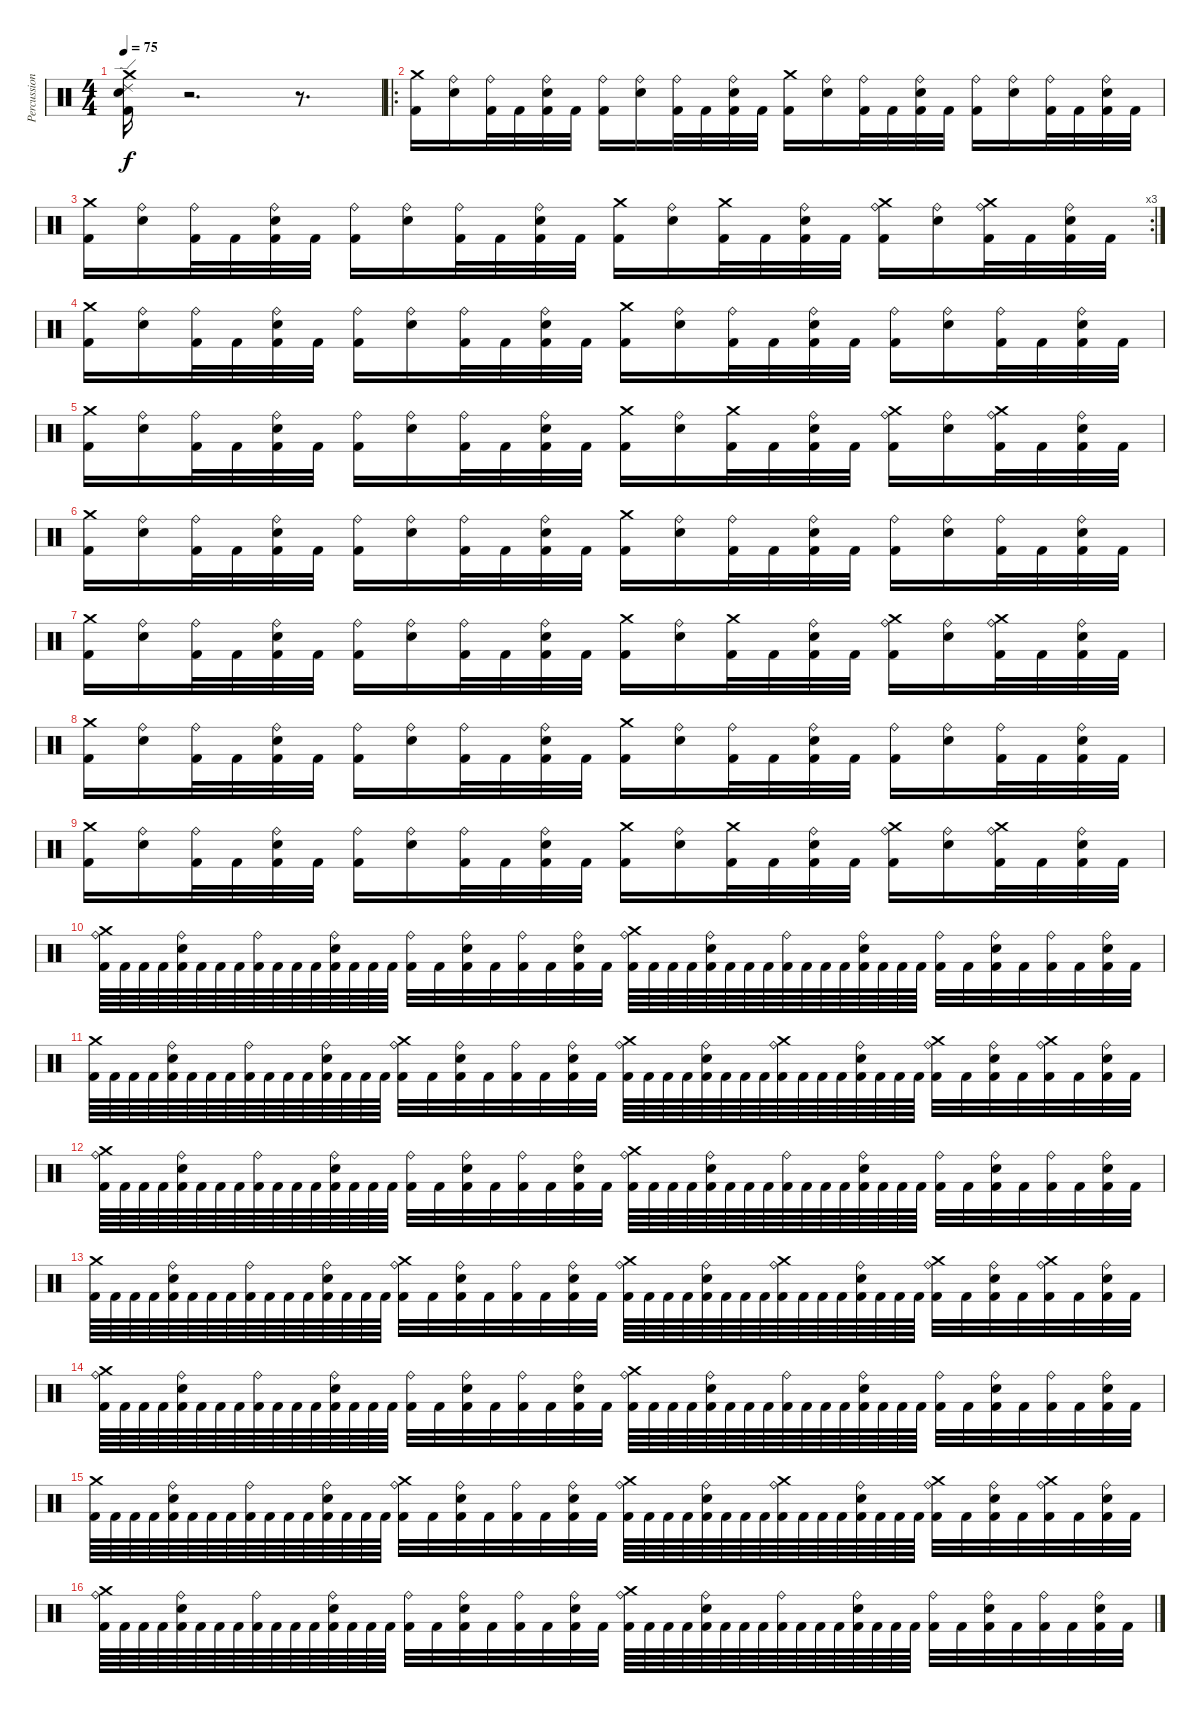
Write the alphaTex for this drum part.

\track ("Percussion" "Percussion") {instrument percussion}
\staff {score}
\articulation defaults
\ts (4 4)
\tempo 75
\clef neutral
\ks c
("Crash medium (hit)" "Electric Snare (hit)" "Ride (edge) 2" "Kick (hit) 2").16{dy f} r.2{d} r.8{d} |
\ro
("Crash medium (hit)" "Kick (hit) 2").16 ("Ride (bell)" "Electric Snare (hit)").16 ("Ride (bell)" "Kick (hit) 2").32 "Kick (hit) 2".32 ("Ride (bell)" "Electric Snare (hit)" "Kick (hit) 2").32 "Kick (hit) 2".32 ("Ride (bell)" "Kick (hit) 2").16 ("Ride (bell)" "Electric Snare (hit)").16 ("Ride (bell)" "Kick (hit) 2").32 "Kick (hit) 2".32 ("Ride (bell)" "Electric Snare (hit)" "Kick (hit) 2").32 "Kick (hit) 2".32 ("Crash medium (hit)" "Kick (hit) 2").16 ("Ride (bell)" "Electric Snare (hit)").16 ("Ride (bell)" "Kick (hit) 2").32 "Kick (hit) 2".32 ("Ride (bell)" "Electric Snare (hit)" "Kick (hit) 2").32 "Kick (hit) 2".32 ("Ride (bell)" "Kick (hit) 2").16 ("Ride (bell)" "Electric Snare (hit)").16 ("Ride (bell)" "Kick (hit) 2").32 "Kick (hit) 2".32 ("Ride (bell)" "Electric Snare (hit)" "Kick (hit) 2").32 "Kick (hit) 2".32 |
\rc 3
("Crash medium (hit)" "Kick (hit) 2").16 ("Ride (bell)" "Electric Snare (hit)").16 ("Ride (bell)" "Kick (hit) 2").32 "Kick (hit) 2".32 ("Ride (bell)" "Electric Snare (hit)" "Kick (hit) 2").32 "Kick (hit) 2".32 ("Ride (bell)" "Kick (hit) 2").16 ("Ride (bell)" "Electric Snare (hit)").16 ("Ride (bell)" "Kick (hit) 2").32 "Kick (hit) 2".32 ("Ride (bell)" "Electric Snare (hit)" "Kick (hit) 2").32 "Kick (hit) 2".32 ("Crash medium (hit)" "Kick (hit) 2").16 ("Ride (bell)" "Electric Snare (hit)").16 ("Crash medium (hit)" "Kick (hit) 2").32 "Kick (hit) 2".32 ("Ride (bell)" "Electric Snare (hit)" "Kick (hit) 2").32 "Kick (hit) 2".32 ("Crash medium (hit)" "Ride (bell)" "Kick (hit) 2").16 ("Ride (bell)" "Electric Snare (hit)").16 ("Crash medium (hit)" "Ride (bell)" "Kick (hit) 2").32 "Kick (hit) 2".32 ("Ride (bell)" "Electric Snare (hit)" "Kick (hit) 2").32 "Kick (hit) 2".32 |
("Crash medium (hit)" "Kick (hit) 2").16 ("Ride (bell)" "Electric Snare (hit)").16 ("Ride (bell)" "Kick (hit) 2").32 "Kick (hit) 2".32 ("Ride (bell)" "Electric Snare (hit)" "Kick (hit) 2").32 "Kick (hit) 2".32 ("Ride (bell)" "Kick (hit) 2").16 ("Ride (bell)" "Electric Snare (hit)").16 ("Ride (bell)" "Kick (hit) 2").32 "Kick (hit) 2".32 ("Ride (bell)" "Electric Snare (hit)" "Kick (hit) 2").32 "Kick (hit) 2".32 ("Crash medium (hit)" "Kick (hit) 2").16 ("Ride (bell)" "Electric Snare (hit)").16 ("Ride (bell)" "Kick (hit) 2").32 "Kick (hit) 2".32 ("Ride (bell)" "Electric Snare (hit)" "Kick (hit) 2").32 "Kick (hit) 2".32 ("Ride (bell)" "Kick (hit) 2").16 ("Ride (bell)" "Electric Snare (hit)").16 ("Ride (bell)" "Kick (hit) 2").32 "Kick (hit) 2".32 ("Ride (bell)" "Electric Snare (hit)" "Kick (hit) 2").32 "Kick (hit) 2".32 |
("Crash medium (hit)" "Kick (hit) 2").16 ("Ride (bell)" "Electric Snare (hit)").16 ("Ride (bell)" "Kick (hit) 2").32 "Kick (hit) 2".32 ("Ride (bell)" "Electric Snare (hit)" "Kick (hit) 2").32 "Kick (hit) 2".32 ("Ride (bell)" "Kick (hit) 2").16 ("Ride (bell)" "Electric Snare (hit)").16 ("Ride (bell)" "Kick (hit) 2").32 "Kick (hit) 2".32 ("Ride (bell)" "Electric Snare (hit)" "Kick (hit) 2").32 "Kick (hit) 2".32 ("Crash medium (hit)" "Kick (hit) 2").16 ("Ride (bell)" "Electric Snare (hit)").16 ("Crash medium (hit)" "Kick (hit) 2").32 "Kick (hit) 2".32 ("Ride (bell)" "Electric Snare (hit)" "Kick (hit) 2").32 "Kick (hit) 2".32 ("Crash medium (hit)" "Ride (bell)" "Kick (hit) 2").16 ("Ride (bell)" "Electric Snare (hit)").16 ("Crash medium (hit)" "Ride (bell)" "Kick (hit) 2").32 "Kick (hit) 2".32 ("Ride (bell)" "Electric Snare (hit)" "Kick (hit) 2").32 "Kick (hit) 2".32 |
("Crash medium (hit)" "Kick (hit) 2").16 ("Ride (bell)" "Electric Snare (hit)").16 ("Ride (bell)" "Kick (hit) 2").32 "Kick (hit) 2".32 ("Ride (bell)" "Electric Snare (hit)" "Kick (hit) 2").32 "Kick (hit) 2".32 ("Ride (bell)" "Kick (hit) 2").16 ("Ride (bell)" "Electric Snare (hit)").16 ("Ride (bell)" "Kick (hit) 2").32 "Kick (hit) 2".32 ("Ride (bell)" "Electric Snare (hit)" "Kick (hit) 2").32 "Kick (hit) 2".32 ("Crash medium (hit)" "Kick (hit) 2").16 ("Ride (bell)" "Electric Snare (hit)").16 ("Ride (bell)" "Kick (hit) 2").32 "Kick (hit) 2".32 ("Ride (bell)" "Electric Snare (hit)" "Kick (hit) 2").32 "Kick (hit) 2".32 ("Ride (bell)" "Kick (hit) 2").16 ("Ride (bell)" "Electric Snare (hit)").16 ("Ride (bell)" "Kick (hit) 2").32 "Kick (hit) 2".32 ("Ride (bell)" "Electric Snare (hit)" "Kick (hit) 2").32 "Kick (hit) 2".32 |
("Crash medium (hit)" "Kick (hit) 2").16 ("Ride (bell)" "Electric Snare (hit)").16 ("Ride (bell)" "Kick (hit) 2").32 "Kick (hit) 2".32 ("Ride (bell)" "Electric Snare (hit)" "Kick (hit) 2").32 "Kick (hit) 2".32 ("Ride (bell)" "Kick (hit) 2").16 ("Ride (bell)" "Electric Snare (hit)").16 ("Ride (bell)" "Kick (hit) 2").32 "Kick (hit) 2".32 ("Ride (bell)" "Electric Snare (hit)" "Kick (hit) 2").32 "Kick (hit) 2".32 ("Crash medium (hit)" "Kick (hit) 2").16 ("Ride (bell)" "Electric Snare (hit)").16 ("Crash medium (hit)" "Kick (hit) 2").32 "Kick (hit) 2".32 ("Ride (bell)" "Electric Snare (hit)" "Kick (hit) 2").32 "Kick (hit) 2".32 ("Crash medium (hit)" "Ride (bell)" "Kick (hit) 2").16 ("Ride (bell)" "Electric Snare (hit)").16 ("Crash medium (hit)" "Ride (bell)" "Kick (hit) 2").32 "Kick (hit) 2".32 ("Ride (bell)" "Electric Snare (hit)" "Kick (hit) 2").32 "Kick (hit) 2".32 |
("Crash medium (hit)" "Kick (hit) 2").16 ("Ride (bell)" "Electric Snare (hit)").16 ("Ride (bell)" "Kick (hit) 2").32 "Kick (hit) 2".32 ("Ride (bell)" "Electric Snare (hit)" "Kick (hit) 2").32 "Kick (hit) 2".32 ("Ride (bell)" "Kick (hit) 2").16 ("Ride (bell)" "Electric Snare (hit)").16 ("Ride (bell)" "Kick (hit) 2").32 "Kick (hit) 2".32 ("Ride (bell)" "Electric Snare (hit)" "Kick (hit) 2").32 "Kick (hit) 2".32 ("Crash medium (hit)" "Kick (hit) 2").16 ("Ride (bell)" "Electric Snare (hit)").16 ("Ride (bell)" "Kick (hit) 2").32 "Kick (hit) 2".32 ("Ride (bell)" "Electric Snare (hit)" "Kick (hit) 2").32 "Kick (hit) 2".32 ("Ride (bell)" "Kick (hit) 2").16 ("Ride (bell)" "Electric Snare (hit)").16 ("Ride (bell)" "Kick (hit) 2").32 "Kick (hit) 2".32 ("Ride (bell)" "Electric Snare (hit)" "Kick (hit) 2").32 "Kick (hit) 2".32 |
("Crash medium (hit)" "Kick (hit) 2").16 ("Ride (bell)" "Electric Snare (hit)").16 ("Ride (bell)" "Kick (hit) 2").32 "Kick (hit) 2".32 ("Ride (bell)" "Electric Snare (hit)" "Kick (hit) 2").32 "Kick (hit) 2".32 ("Ride (bell)" "Kick (hit) 2").16 ("Ride (bell)" "Electric Snare (hit)").16 ("Ride (bell)" "Kick (hit) 2").32 "Kick (hit) 2".32 ("Ride (bell)" "Electric Snare (hit)" "Kick (hit) 2").32 "Kick (hit) 2".32 ("Crash medium (hit)" "Kick (hit) 2").16 ("Ride (bell)" "Electric Snare (hit)").16 ("Crash medium (hit)" "Kick (hit) 2").32 "Kick (hit) 2".32 ("Ride (bell)" "Electric Snare (hit)" "Kick (hit) 2").32 "Kick (hit) 2".32 ("Crash medium (hit)" "Ride (bell)" "Kick (hit) 2").16 ("Ride (bell)" "Electric Snare (hit)").16 ("Crash medium (hit)" "Ride (bell)" "Kick (hit) 2").32 "Kick (hit) 2".32 ("Ride (bell)" "Electric Snare (hit)" "Kick (hit) 2").32 "Kick (hit) 2".32 |
("Crash medium (hit)" "Ride (bell)" "Kick (hit) 2").64 "Kick (hit) 2".64 "Kick (hit) 2".64 "Kick (hit) 2".64 ("Ride (bell)" "Electric Snare (hit)" "Kick (hit) 2").64 "Kick (hit) 2".64 "Kick (hit) 2".64 "Kick (hit) 2".64 ("Ride (bell)" "Kick (hit) 2").64 "Kick (hit) 2".64 "Kick (hit) 2".64 "Kick (hit) 2".64 ("Ride (bell)" "Electric Snare (hit)" "Kick (hit) 2").64 "Kick (hit) 2".64 "Kick (hit) 2".64 "Kick (hit) 2".64 ("Ride (bell)" "Kick (hit) 2").32 "Kick (hit) 2".32 ("Ride (bell)" "Electric Snare (hit)" "Kick (hit) 2").32 "Kick (hit) 2".32 ("Ride (bell)" "Kick (hit) 2").32 "Kick (hit) 2".32 ("Ride (bell)" "Electric Snare (hit)" "Kick (hit) 2").32 "Kick (hit) 2".32 ("Crash medium (hit)" "Ride (bell)" "Kick (hit) 2").64 "Kick (hit) 2".64 "Kick (hit) 2".64 "Kick (hit) 2".64 ("Ride (bell)" "Electric Snare (hit)" "Kick (hit) 2").64 "Kick (hit) 2".64 "Kick (hit) 2".64 "Kick (hit) 2".64 ("Ride (bell)" "Kick (hit) 2").64 "Kick (hit) 2".64 "Kick (hit) 2".64 "Kick (hit) 2".64 ("Ride (bell)" "Electric Snare (hit)" "Kick (hit) 2").64 "Kick (hit) 2".64 "Kick (hit) 2".64 "Kick (hit) 2".64 ("Ride (bell)" "Kick (hit) 2").32 "Kick (hit) 2".32 ("Ride (bell)" "Electric Snare (hit)" "Kick (hit) 2").32 "Kick (hit) 2".32 ("Ride (bell)" "Kick (hit) 2").32 "Kick (hit) 2".32 ("Ride (bell)" "Electric Snare (hit)" "Kick (hit) 2").32 "Kick (hit) 2".32 |
("Crash medium (hit)" "Kick (hit) 2").64 "Kick (hit) 2".64 "Kick (hit) 2".64 "Kick (hit) 2".64 ("Ride (bell)" "Electric Snare (hit)" "Kick (hit) 2").64 "Kick (hit) 2".64 "Kick (hit) 2".64 "Kick (hit) 2".64 ("Ride (bell)" "Kick (hit) 2").64 "Kick (hit) 2".64 "Kick (hit) 2".64 "Kick (hit) 2".64 ("Ride (bell)" "Electric Snare (hit)" "Kick (hit) 2").64 "Kick (hit) 2".64 "Kick (hit) 2".64 "Kick (hit) 2".64 ("Crash medium (hit)" "Ride (bell)" "Kick (hit) 2").32 "Kick (hit) 2".32 ("Ride (bell)" "Electric Snare (hit)" "Kick (hit) 2").32 "Kick (hit) 2".32 ("Ride (bell)" "Kick (hit) 2").32 "Kick (hit) 2".32 ("Ride (bell)" "Electric Snare (hit)" "Kick (hit) 2").32 "Kick (hit) 2".32 ("Crash medium (hit)" "Ride (bell)" "Kick (hit) 2").64 "Kick (hit) 2".64 "Kick (hit) 2".64 "Kick (hit) 2".64 ("Ride (bell)" "Electric Snare (hit)" "Kick (hit) 2").64 "Kick (hit) 2".64 "Kick (hit) 2".64 "Kick (hit) 2".64 ("Crash medium (hit)" "Ride (bell)" "Kick (hit) 2").64 "Kick (hit) 2".64 "Kick (hit) 2".64 "Kick (hit) 2".64 ("Ride (bell)" "Electric Snare (hit)" "Kick (hit) 2").64 "Kick (hit) 2".64 "Kick (hit) 2".64 "Kick (hit) 2".64 ("Crash medium (hit)" "Ride (bell)" "Kick (hit) 2").32 "Kick (hit) 2".32 ("Ride (bell)" "Electric Snare (hit)" "Kick (hit) 2").32 "Kick (hit) 2".32 ("Crash medium (hit)" "Ride (bell)" "Kick (hit) 2").32 "Kick (hit) 2".32 ("Ride (bell)" "Electric Snare (hit)" "Kick (hit) 2").32 "Kick (hit) 2".32 |
("Crash medium (hit)" "Ride (bell)" "Kick (hit) 2").64 "Kick (hit) 2".64 "Kick (hit) 2".64 "Kick (hit) 2".64 ("Ride (bell)" "Electric Snare (hit)" "Kick (hit) 2").64 "Kick (hit) 2".64 "Kick (hit) 2".64 "Kick (hit) 2".64 ("Ride (bell)" "Kick (hit) 2").64 "Kick (hit) 2".64 "Kick (hit) 2".64 "Kick (hit) 2".64 ("Ride (bell)" "Electric Snare (hit)" "Kick (hit) 2").64 "Kick (hit) 2".64 "Kick (hit) 2".64 "Kick (hit) 2".64 ("Ride (bell)" "Kick (hit) 2").32 "Kick (hit) 2".32 ("Ride (bell)" "Electric Snare (hit)" "Kick (hit) 2").32 "Kick (hit) 2".32 ("Ride (bell)" "Kick (hit) 2").32 "Kick (hit) 2".32 ("Ride (bell)" "Electric Snare (hit)" "Kick (hit) 2").32 "Kick (hit) 2".32 ("Crash medium (hit)" "Ride (bell)" "Kick (hit) 2").64 "Kick (hit) 2".64 "Kick (hit) 2".64 "Kick (hit) 2".64 ("Ride (bell)" "Electric Snare (hit)" "Kick (hit) 2").64 "Kick (hit) 2".64 "Kick (hit) 2".64 "Kick (hit) 2".64 ("Ride (bell)" "Kick (hit) 2").64 "Kick (hit) 2".64 "Kick (hit) 2".64 "Kick (hit) 2".64 ("Ride (bell)" "Electric Snare (hit)" "Kick (hit) 2").64 "Kick (hit) 2".64 "Kick (hit) 2".64 "Kick (hit) 2".64 ("Ride (bell)" "Kick (hit) 2").32 "Kick (hit) 2".32 ("Ride (bell)" "Electric Snare (hit)" "Kick (hit) 2").32 "Kick (hit) 2".32 ("Ride (bell)" "Kick (hit) 2").32 "Kick (hit) 2".32 ("Ride (bell)" "Electric Snare (hit)" "Kick (hit) 2").32 "Kick (hit) 2".32 |
("Crash medium (hit)" "Kick (hit) 2").64 "Kick (hit) 2".64 "Kick (hit) 2".64 "Kick (hit) 2".64 ("Ride (bell)" "Electric Snare (hit)" "Kick (hit) 2").64 "Kick (hit) 2".64 "Kick (hit) 2".64 "Kick (hit) 2".64 ("Ride (bell)" "Kick (hit) 2").64 "Kick (hit) 2".64 "Kick (hit) 2".64 "Kick (hit) 2".64 ("Ride (bell)" "Electric Snare (hit)" "Kick (hit) 2").64 "Kick (hit) 2".64 "Kick (hit) 2".64 "Kick (hit) 2".64 ("Crash medium (hit)" "Ride (bell)" "Kick (hit) 2").32 "Kick (hit) 2".32 ("Ride (bell)" "Electric Snare (hit)" "Kick (hit) 2").32 "Kick (hit) 2".32 ("Ride (bell)" "Kick (hit) 2").32 "Kick (hit) 2".32 ("Ride (bell)" "Electric Snare (hit)" "Kick (hit) 2").32 "Kick (hit) 2".32 ("Crash medium (hit)" "Ride (bell)" "Kick (hit) 2").64 "Kick (hit) 2".64 "Kick (hit) 2".64 "Kick (hit) 2".64 ("Ride (bell)" "Electric Snare (hit)" "Kick (hit) 2").64 "Kick (hit) 2".64 "Kick (hit) 2".64 "Kick (hit) 2".64 ("Crash medium (hit)" "Ride (bell)" "Kick (hit) 2").64 "Kick (hit) 2".64 "Kick (hit) 2".64 "Kick (hit) 2".64 ("Ride (bell)" "Electric Snare (hit)" "Kick (hit) 2").64 "Kick (hit) 2".64 "Kick (hit) 2".64 "Kick (hit) 2".64 ("Crash medium (hit)" "Ride (bell)" "Kick (hit) 2").32 "Kick (hit) 2".32 ("Ride (bell)" "Electric Snare (hit)" "Kick (hit) 2").32 "Kick (hit) 2".32 ("Crash medium (hit)" "Ride (bell)" "Kick (hit) 2").32 "Kick (hit) 2".32 ("Ride (bell)" "Electric Snare (hit)" "Kick (hit) 2").32 "Kick (hit) 2".32 |
("Crash medium (hit)" "Ride (bell)" "Kick (hit) 2").64 "Kick (hit) 2".64 "Kick (hit) 2".64 "Kick (hit) 2".64 ("Ride (bell)" "Electric Snare (hit)" "Kick (hit) 2").64 "Kick (hit) 2".64 "Kick (hit) 2".64 "Kick (hit) 2".64 ("Ride (bell)" "Kick (hit) 2").64 "Kick (hit) 2".64 "Kick (hit) 2".64 "Kick (hit) 2".64 ("Ride (bell)" "Electric Snare (hit)" "Kick (hit) 2").64 "Kick (hit) 2".64 "Kick (hit) 2".64 "Kick (hit) 2".64 ("Ride (bell)" "Kick (hit) 2").32 "Kick (hit) 2".32 ("Ride (bell)" "Electric Snare (hit)" "Kick (hit) 2").32 "Kick (hit) 2".32 ("Ride (bell)" "Kick (hit) 2").32 "Kick (hit) 2".32 ("Ride (bell)" "Electric Snare (hit)" "Kick (hit) 2").32 "Kick (hit) 2".32 ("Crash medium (hit)" "Ride (bell)" "Kick (hit) 2").64 "Kick (hit) 2".64 "Kick (hit) 2".64 "Kick (hit) 2".64 ("Ride (bell)" "Electric Snare (hit)" "Kick (hit) 2").64 "Kick (hit) 2".64 "Kick (hit) 2".64 "Kick (hit) 2".64 ("Ride (bell)" "Kick (hit) 2").64 "Kick (hit) 2".64 "Kick (hit) 2".64 "Kick (hit) 2".64 ("Ride (bell)" "Electric Snare (hit)" "Kick (hit) 2").64 "Kick (hit) 2".64 "Kick (hit) 2".64 "Kick (hit) 2".64 ("Ride (bell)" "Kick (hit) 2").32 "Kick (hit) 2".32 ("Ride (bell)" "Electric Snare (hit)" "Kick (hit) 2").32 "Kick (hit) 2".32 ("Ride (bell)" "Kick (hit) 2").32 "Kick (hit) 2".32 ("Ride (bell)" "Electric Snare (hit)" "Kick (hit) 2").32 "Kick (hit) 2".32 |
("Crash medium (hit)" "Kick (hit) 2").64 "Kick (hit) 2".64 "Kick (hit) 2".64 "Kick (hit) 2".64 ("Ride (bell)" "Electric Snare (hit)" "Kick (hit) 2").64 "Kick (hit) 2".64 "Kick (hit) 2".64 "Kick (hit) 2".64 ("Ride (bell)" "Kick (hit) 2").64 "Kick (hit) 2".64 "Kick (hit) 2".64 "Kick (hit) 2".64 ("Ride (bell)" "Electric Snare (hit)" "Kick (hit) 2").64 "Kick (hit) 2".64 "Kick (hit) 2".64 "Kick (hit) 2".64 ("Crash medium (hit)" "Ride (bell)" "Kick (hit) 2").32 "Kick (hit) 2".32 ("Ride (bell)" "Electric Snare (hit)" "Kick (hit) 2").32 "Kick (hit) 2".32 ("Ride (bell)" "Kick (hit) 2").32 "Kick (hit) 2".32 ("Ride (bell)" "Electric Snare (hit)" "Kick (hit) 2").32 "Kick (hit) 2".32 ("Crash medium (hit)" "Ride (bell)" "Kick (hit) 2").64 "Kick (hit) 2".64 "Kick (hit) 2".64 "Kick (hit) 2".64 ("Ride (bell)" "Electric Snare (hit)" "Kick (hit) 2").64 "Kick (hit) 2".64 "Kick (hit) 2".64 "Kick (hit) 2".64 ("Crash medium (hit)" "Ride (bell)" "Kick (hit) 2").64 "Kick (hit) 2".64 "Kick (hit) 2".64 "Kick (hit) 2".64 ("Ride (bell)" "Electric Snare (hit)" "Kick (hit) 2").64 "Kick (hit) 2".64 "Kick (hit) 2".64 "Kick (hit) 2".64 ("Crash medium (hit)" "Ride (bell)" "Kick (hit) 2").32 "Kick (hit) 2".32 ("Ride (bell)" "Electric Snare (hit)" "Kick (hit) 2").32 "Kick (hit) 2".32 ("Crash medium (hit)" "Ride (bell)" "Kick (hit) 2").32 "Kick (hit) 2".32 ("Ride (bell)" "Electric Snare (hit)" "Kick (hit) 2").32 "Kick (hit) 2".32 |
("Crash medium (hit)" "Ride (bell)" "Kick (hit) 2").64 "Kick (hit) 2".64 "Kick (hit) 2".64 "Kick (hit) 2".64 ("Ride (bell)" "Electric Snare (hit)" "Kick (hit) 2").64 "Kick (hit) 2".64 "Kick (hit) 2".64 "Kick (hit) 2".64 ("Ride (bell)" "Kick (hit) 2").64 "Kick (hit) 2".64 "Kick (hit) 2".64 "Kick (hit) 2".64 ("Ride (bell)" "Electric Snare (hit)" "Kick (hit) 2").64 "Kick (hit) 2".64 "Kick (hit) 2".64 "Kick (hit) 2".64 ("Ride (bell)" "Kick (hit) 2").32 "Kick (hit) 2".32 ("Ride (bell)" "Electric Snare (hit)" "Kick (hit) 2").32 "Kick (hit) 2".32 ("Ride (bell)" "Kick (hit) 2").32 "Kick (hit) 2".32 ("Ride (bell)" "Electric Snare (hit)" "Kick (hit) 2").32 "Kick (hit) 2".32 ("Crash medium (hit)" "Ride (bell)" "Kick (hit) 2").64 "Kick (hit) 2".64 "Kick (hit) 2".64 "Kick (hit) 2".64 ("Ride (bell)" "Electric Snare (hit)" "Kick (hit) 2").64 "Kick (hit) 2".64 "Kick (hit) 2".64 "Kick (hit) 2".64 ("Ride (bell)" "Kick (hit) 2").64 "Kick (hit) 2".64 "Kick (hit) 2".64 "Kick (hit) 2".64 ("Ride (bell)" "Electric Snare (hit)" "Kick (hit) 2").64 "Kick (hit) 2".64 "Kick (hit) 2".64 "Kick (hit) 2".64 ("Ride (bell)" "Kick (hit) 2").32 "Kick (hit) 2".32 ("Ride (bell)" "Electric Snare (hit)" "Kick (hit) 2").32 "Kick (hit) 2".32 ("Ride (bell)" "Kick (hit) 2").32 "Kick (hit) 2".32 ("Ride (bell)" "Electric Snare (hit)" "Kick (hit) 2").32 "Kick (hit) 2".32
